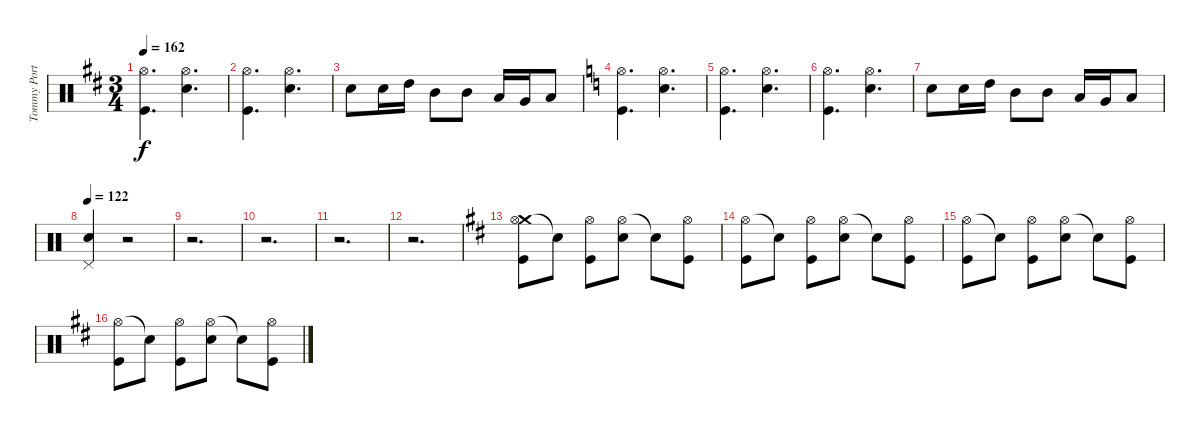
\track ("Tommy Portimo (Drums)" "Tommy Port") {instrument percussion}
\staff {score}
\articulation defaults
\ts (3 4)
\tempo 162
\clef neutral
\ks d
("Kick (hit)" "Hi-Hat (open)").4{d dy f} ("Hi-Hat (open)" "Electric Snare (hit)").4{d} |
("Kick (hit)" "Hi-Hat (open)").4{d} ("Hi-Hat (open)" "Electric Snare (hit)").4{d} |
"Electric Snare (hit)".8 "Electric Snare (hit)".16 "High Tom (hit)".16 "Mid Tom (hit)".8 "Mid Tom (hit)".8 "Low Tom (hit)".16 "Very Low Tom (hit)".16 "Low Floor Tom (hit)".8 |
\ks c
("Kick (hit)" "Hi-Hat (open)").4{d} ("Hi-Hat (open)" "Electric Snare (hit)").4{d} |
("Kick (hit)" "Hi-Hat (open)").4{d} ("Hi-Hat (open)" "Electric Snare (hit)").4{d} |
("Kick (hit)" "Hi-Hat (open)").4{d} ("Hi-Hat (open)" "Electric Snare (hit)").4{d} |
"Electric Snare (hit)".8 "Electric Snare (hit)".16 "High Tom (hit)".16 "Mid Tom (hit)".8 "Mid Tom (hit)".8 "Low Tom (hit)".16 "Very Low Tom (hit)".16 "Low Floor Tom (hit)".8 |
\tempo 122
("Electric Snare (hit)" "Pedal Hi-Hat (hit)").4 r.2 |
r.2{d} |
r.2{d} |
r.2{d} |
r.2{d} |
\ks d
("Crash medium (hit)" "Hi-Hat (open)" "Kick (hit)").8 "Snare (hit)"{t}.8 ("Hi-Hat (open)" "Kick (hit)").8 ("Hi-Hat (open)" "Electric Snare (hit)").8 "Snare (hit)"{t}.8 ("Hi-Hat (open)" "Kick (hit)").8 |
("Hi-Hat (open)" "Kick (hit)").8 "Snare (hit)"{t}.8 ("Hi-Hat (open)" "Kick (hit)").8 ("Hi-Hat (open)" "Electric Snare (hit)").8 "Snare (hit)"{t}.8 ("Hi-Hat (open)" "Kick (hit)").8 |
("Hi-Hat (open)" "Kick (hit)").8 "Snare (hit)"{t}.8 ("Hi-Hat (open)" "Kick (hit)").8 ("Hi-Hat (open)" "Electric Snare (hit)").8 "Snare (hit)"{t}.8 ("Hi-Hat (open)" "Kick (hit)").8 |
("Hi-Hat (open)" "Kick (hit)").8 "Snare (hit)"{t}.8 ("Hi-Hat (open)" "Kick (hit)").8 ("Hi-Hat (open)" "Electric Snare (hit)").8 "Snare (hit)"{t}.8 ("Hi-Hat (open)" "Kick (hit)").8
